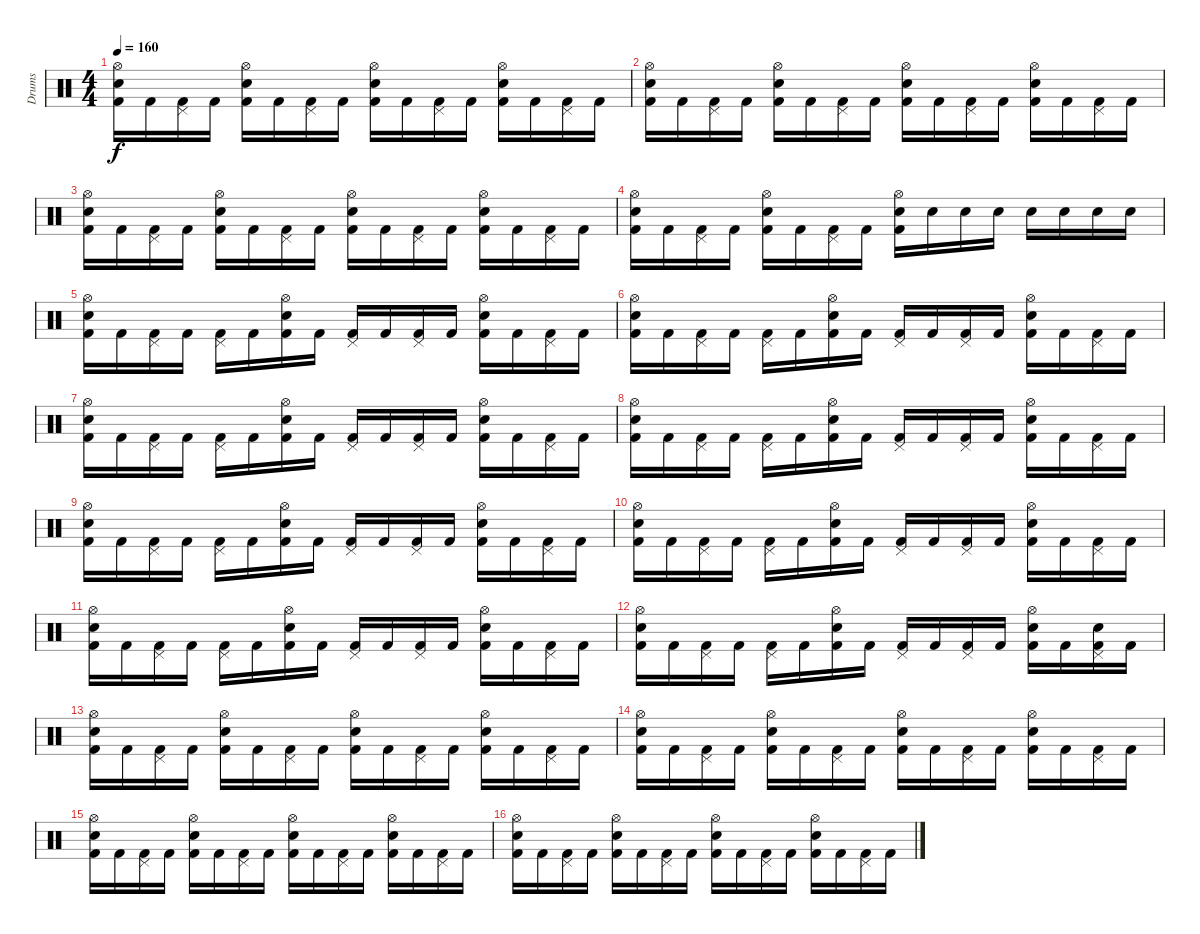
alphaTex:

\track ("Drums" "Drums") {instrument percussion}
\staff {score}
\articulation defaults
\ts (4 4)
\tempo 160
\clef neutral
\ks c
("Hi-Hat (open)" "Electric Snare (hit)" "Kick (hit) 2").16{dy f} "Kick (hit) 2".16 ("Pedal Hi-Hat (hit)" "Kick (hit) 2").16 "Kick (hit) 2".16 ("Hi-Hat (open)" "Snare (hit) 2" "Kick (hit) 2").16 "Kick (hit) 2".16 ("Pedal Hi-Hat (hit)" "Kick (hit) 2").16 "Kick (hit) 2".16 ("Hi-Hat (open)" "Electric Snare (hit)" "Kick (hit) 2").16 "Kick (hit) 2".16 ("Pedal Hi-Hat (hit)" "Kick (hit) 2").16 "Kick (hit) 2".16 ("Hi-Hat (open)" "Snare (hit) 2" "Kick (hit) 2").16 "Kick (hit) 2".16 ("Pedal Hi-Hat (hit)" "Kick (hit) 2").16 "Kick (hit) 2".16 |
("Hi-Hat (open)" "Electric Snare (hit)" "Kick (hit) 2").16 "Kick (hit) 2".16 ("Pedal Hi-Hat (hit)" "Kick (hit) 2").16 "Kick (hit) 2".16 ("Hi-Hat (open)" "Snare (hit) 2" "Kick (hit) 2").16 "Kick (hit) 2".16 ("Pedal Hi-Hat (hit)" "Kick (hit) 2").16 "Kick (hit) 2".16 ("Hi-Hat (open)" "Electric Snare (hit)" "Kick (hit) 2").16 "Kick (hit) 2".16 ("Pedal Hi-Hat (hit)" "Kick (hit) 2").16 "Kick (hit) 2".16 ("Hi-Hat (open)" "Snare (hit) 2" "Kick (hit) 2").16 "Kick (hit) 2".16 ("Pedal Hi-Hat (hit)" "Kick (hit) 2").16 "Kick (hit) 2".16 |
("Hi-Hat (open)" "Electric Snare (hit)" "Kick (hit) 2").16 "Kick (hit) 2".16 ("Pedal Hi-Hat (hit)" "Kick (hit) 2").16 "Kick (hit) 2".16 ("Hi-Hat (open)" "Snare (hit) 2" "Kick (hit) 2").16 "Kick (hit) 2".16 ("Pedal Hi-Hat (hit)" "Kick (hit) 2").16 "Kick (hit) 2".16 ("Hi-Hat (open)" "Electric Snare (hit)" "Kick (hit) 2").16 "Kick (hit) 2".16 ("Pedal Hi-Hat (hit)" "Kick (hit) 2").16 "Kick (hit) 2".16 ("Hi-Hat (open)" "Snare (hit) 2" "Kick (hit) 2").16 "Kick (hit) 2".16 ("Pedal Hi-Hat (hit)" "Kick (hit) 2").16 "Kick (hit) 2".16 |
("Hi-Hat (open)" "Electric Snare (hit)" "Kick (hit) 2").16 "Kick (hit) 2".16 ("Pedal Hi-Hat (hit)" "Kick (hit) 2").16 "Kick (hit) 2".16 ("Hi-Hat (open)" "Snare (hit) 2" "Kick (hit) 2").16 "Kick (hit) 2".16 ("Pedal Hi-Hat (hit)" "Kick (hit) 2").16 "Kick (hit) 2".16 ("Hi-Hat (open)" "Snare (hit) 2" "Kick (hit) 2").16 "Snare (hit) 2".16 "Snare (hit) 2".16 "Snare (hit) 2".16 "Snare (hit) 2".16 "Snare (hit) 2".16 "Snare (hit) 2".16 "Snare (hit) 2".16 |
("Hi-Hat (open)" "Electric Snare (hit)" "Kick (hit) 2").16 "Kick (hit) 2".16 ("Pedal Hi-Hat (hit)" "Kick (hit) 2").16 "Kick (hit) 2".16 ("Pedal Hi-Hat (hit)" "Kick (hit) 2").16 "Kick (hit) 2".16 ("Hi-Hat (open)" "Snare (hit) 2" "Kick (hit) 2").16 "Kick (hit) 2".16 ("Pedal Hi-Hat (hit)" "Kick (hit) 2").16 "Kick (hit) 2".16 ("Pedal Hi-Hat (hit)" "Kick (hit) 2").16 "Kick (hit) 2".16 ("Hi-Hat (open)" "Electric Snare (hit)" "Kick (hit) 2").16 "Kick (hit) 2".16 ("Pedal Hi-Hat (hit)" "Kick (hit) 2").16 "Kick (hit) 2".16 |
("Hi-Hat (open)" "Electric Snare (hit)" "Kick (hit) 2").16 "Kick (hit) 2".16 ("Pedal Hi-Hat (hit)" "Kick (hit) 2").16 "Kick (hit) 2".16 ("Pedal Hi-Hat (hit)" "Kick (hit) 2").16 "Kick (hit) 2".16 ("Hi-Hat (open)" "Snare (hit) 2" "Kick (hit) 2").16 "Kick (hit) 2".16 ("Pedal Hi-Hat (hit)" "Kick (hit) 2").16 "Kick (hit) 2".16 ("Pedal Hi-Hat (hit)" "Kick (hit) 2").16 "Kick (hit) 2".16 ("Hi-Hat (open)" "Electric Snare (hit)" "Kick (hit) 2").16 "Kick (hit) 2".16 ("Pedal Hi-Hat (hit)" "Kick (hit) 2").16 "Kick (hit) 2".16 |
("Hi-Hat (open)" "Electric Snare (hit)" "Kick (hit) 2").16 "Kick (hit) 2".16 ("Pedal Hi-Hat (hit)" "Kick (hit) 2").16 "Kick (hit) 2".16 ("Pedal Hi-Hat (hit)" "Kick (hit) 2").16 "Kick (hit) 2".16 ("Hi-Hat (open)" "Snare (hit) 2" "Kick (hit) 2").16 "Kick (hit) 2".16 ("Pedal Hi-Hat (hit)" "Kick (hit) 2").16 "Kick (hit) 2".16 ("Pedal Hi-Hat (hit)" "Kick (hit) 2").16 "Kick (hit) 2".16 ("Hi-Hat (open)" "Electric Snare (hit)" "Kick (hit) 2").16 "Kick (hit) 2".16 ("Pedal Hi-Hat (hit)" "Kick (hit) 2").16 "Kick (hit) 2".16 |
("Hi-Hat (open)" "Electric Snare (hit)" "Kick (hit) 2").16 "Kick (hit) 2".16 ("Pedal Hi-Hat (hit)" "Kick (hit) 2").16 "Kick (hit) 2".16 ("Pedal Hi-Hat (hit)" "Kick (hit) 2").16 "Kick (hit) 2".16 ("Hi-Hat (open)" "Snare (hit) 2" "Kick (hit) 2").16 "Kick (hit) 2".16 ("Pedal Hi-Hat (hit)" "Kick (hit) 2").16 "Kick (hit) 2".16 ("Pedal Hi-Hat (hit)" "Kick (hit) 2").16 "Kick (hit) 2".16 ("Hi-Hat (open)" "Electric Snare (hit)" "Kick (hit) 2").16 "Kick (hit) 2".16 ("Pedal Hi-Hat (hit)" "Kick (hit) 2").16 "Kick (hit) 2".16 |
("Hi-Hat (open)" "Electric Snare (hit)" "Kick (hit) 2").16 "Kick (hit) 2".16 ("Pedal Hi-Hat (hit)" "Kick (hit) 2").16 "Kick (hit) 2".16 ("Pedal Hi-Hat (hit)" "Kick (hit) 2").16 "Kick (hit) 2".16 ("Hi-Hat (open)" "Snare (hit) 2" "Kick (hit) 2").16 "Kick (hit) 2".16 ("Pedal Hi-Hat (hit)" "Kick (hit) 2").16 "Kick (hit) 2".16 ("Pedal Hi-Hat (hit)" "Kick (hit) 2").16 "Kick (hit) 2".16 ("Hi-Hat (open)" "Electric Snare (hit)" "Kick (hit) 2").16 "Kick (hit) 2".16 ("Pedal Hi-Hat (hit)" "Kick (hit) 2").16 "Kick (hit) 2".16 |
("Hi-Hat (open)" "Electric Snare (hit)" "Kick (hit) 2").16 "Kick (hit) 2".16 ("Pedal Hi-Hat (hit)" "Kick (hit) 2").16 "Kick (hit) 2".16 ("Pedal Hi-Hat (hit)" "Kick (hit) 2").16 "Kick (hit) 2".16 ("Hi-Hat (open)" "Snare (hit) 2" "Kick (hit) 2").16 "Kick (hit) 2".16 ("Pedal Hi-Hat (hit)" "Kick (hit) 2").16 "Kick (hit) 2".16 ("Pedal Hi-Hat (hit)" "Kick (hit) 2").16 "Kick (hit) 2".16 ("Hi-Hat (open)" "Electric Snare (hit)" "Kick (hit) 2").16 "Kick (hit) 2".16 ("Pedal Hi-Hat (hit)" "Kick (hit) 2").16 "Kick (hit) 2".16 |
("Hi-Hat (open)" "Electric Snare (hit)" "Kick (hit) 2").16 "Kick (hit) 2".16 ("Pedal Hi-Hat (hit)" "Kick (hit) 2").16 "Kick (hit) 2".16 ("Pedal Hi-Hat (hit)" "Kick (hit) 2").16 "Kick (hit) 2".16 ("Hi-Hat (open)" "Snare (hit) 2" "Kick (hit) 2").16 "Kick (hit) 2".16 ("Pedal Hi-Hat (hit)" "Kick (hit) 2").16 "Kick (hit) 2".16 ("Pedal Hi-Hat (hit)" "Kick (hit) 2").16 "Kick (hit) 2".16 ("Hi-Hat (open)" "Electric Snare (hit)" "Kick (hit) 2").16 "Kick (hit) 2".16 ("Pedal Hi-Hat (hit)" "Kick (hit) 2").16 "Kick (hit) 2".16 |
("Hi-Hat (open)" "Electric Snare (hit)" "Kick (hit) 2").16 "Kick (hit) 2".16 ("Pedal Hi-Hat (hit)" "Kick (hit) 2").16 "Kick (hit) 2".16 ("Pedal Hi-Hat (hit)" "Kick (hit) 2").16 "Kick (hit) 2".16 ("Hi-Hat (open)" "Snare (hit) 2" "Kick (hit) 2").16 "Kick (hit) 2".16 ("Pedal Hi-Hat (hit)" "Kick (hit) 2").16 "Kick (hit) 2".16 ("Pedal Hi-Hat (hit)" "Kick (hit) 2").16 "Kick (hit) 2".16 ("Hi-Hat (open)" "Electric Snare (hit)" "Kick (hit) 2").16 "Kick (hit) 2".16 ("Pedal Hi-Hat (hit)" "Snare (hit) 2" "Kick (hit) 2").16 "Kick (hit) 2".16 |
("Hi-Hat (open)" "Electric Snare (hit)" "Kick (hit) 2").16 "Kick (hit) 2".16 ("Pedal Hi-Hat (hit)" "Kick (hit) 2").16 "Kick (hit) 2".16 ("Hi-Hat (open)" "Snare (hit) 2" "Kick (hit) 2").16 "Kick (hit) 2".16 ("Pedal Hi-Hat (hit)" "Kick (hit) 2").16 "Kick (hit) 2".16 ("Hi-Hat (open)" "Electric Snare (hit)" "Kick (hit) 2").16 "Kick (hit) 2".16 ("Pedal Hi-Hat (hit)" "Kick (hit) 2").16 "Kick (hit) 2".16 ("Hi-Hat (open)" "Snare (hit) 2" "Kick (hit) 2").16 "Kick (hit) 2".16 ("Pedal Hi-Hat (hit)" "Kick (hit) 2").16 "Kick (hit) 2".16 |
("Hi-Hat (open)" "Electric Snare (hit)" "Kick (hit) 2").16 "Kick (hit) 2".16 ("Pedal Hi-Hat (hit)" "Kick (hit) 2").16 "Kick (hit) 2".16 ("Hi-Hat (open)" "Snare (hit) 2" "Kick (hit) 2").16 "Kick (hit) 2".16 ("Pedal Hi-Hat (hit)" "Kick (hit) 2").16 "Kick (hit) 2".16 ("Hi-Hat (open)" "Electric Snare (hit)" "Kick (hit) 2").16 "Kick (hit) 2".16 ("Pedal Hi-Hat (hit)" "Kick (hit) 2").16 "Kick (hit) 2".16 ("Hi-Hat (open)" "Snare (hit) 2" "Kick (hit) 2").16 "Kick (hit) 2".16 ("Pedal Hi-Hat (hit)" "Kick (hit) 2").16 "Kick (hit) 2".16 |
("Hi-Hat (open)" "Electric Snare (hit)" "Kick (hit) 2").16 "Kick (hit) 2".16 ("Pedal Hi-Hat (hit)" "Kick (hit) 2").16 "Kick (hit) 2".16 ("Hi-Hat (open)" "Snare (hit) 2" "Kick (hit) 2").16 "Kick (hit) 2".16 ("Pedal Hi-Hat (hit)" "Kick (hit) 2").16 "Kick (hit) 2".16 ("Hi-Hat (open)" "Electric Snare (hit)" "Kick (hit) 2").16 "Kick (hit) 2".16 ("Pedal Hi-Hat (hit)" "Kick (hit) 2").16 "Kick (hit) 2".16 ("Hi-Hat (open)" "Snare (hit) 2" "Kick (hit) 2").16 "Kick (hit) 2".16 ("Pedal Hi-Hat (hit)" "Kick (hit) 2").16 "Kick (hit) 2".16 |
("Hi-Hat (open)" "Electric Snare (hit)" "Kick (hit) 2").16 "Kick (hit) 2".16 ("Pedal Hi-Hat (hit)" "Kick (hit) 2").16 "Kick (hit) 2".16 ("Hi-Hat (open)" "Snare (hit) 2" "Kick (hit) 2").16 "Kick (hit) 2".16 ("Pedal Hi-Hat (hit)" "Kick (hit) 2").16 "Kick (hit) 2".16 ("Hi-Hat (open)" "Electric Snare (hit)" "Kick (hit) 2").16 "Kick (hit) 2".16 ("Pedal Hi-Hat (hit)" "Kick (hit) 2").16 "Kick (hit) 2".16 ("Hi-Hat (open)" "Snare (hit) 2" "Kick (hit) 2").16 "Kick (hit) 2".16 ("Pedal Hi-Hat (hit)" "Kick (hit) 2").16 "Kick (hit) 2".16
